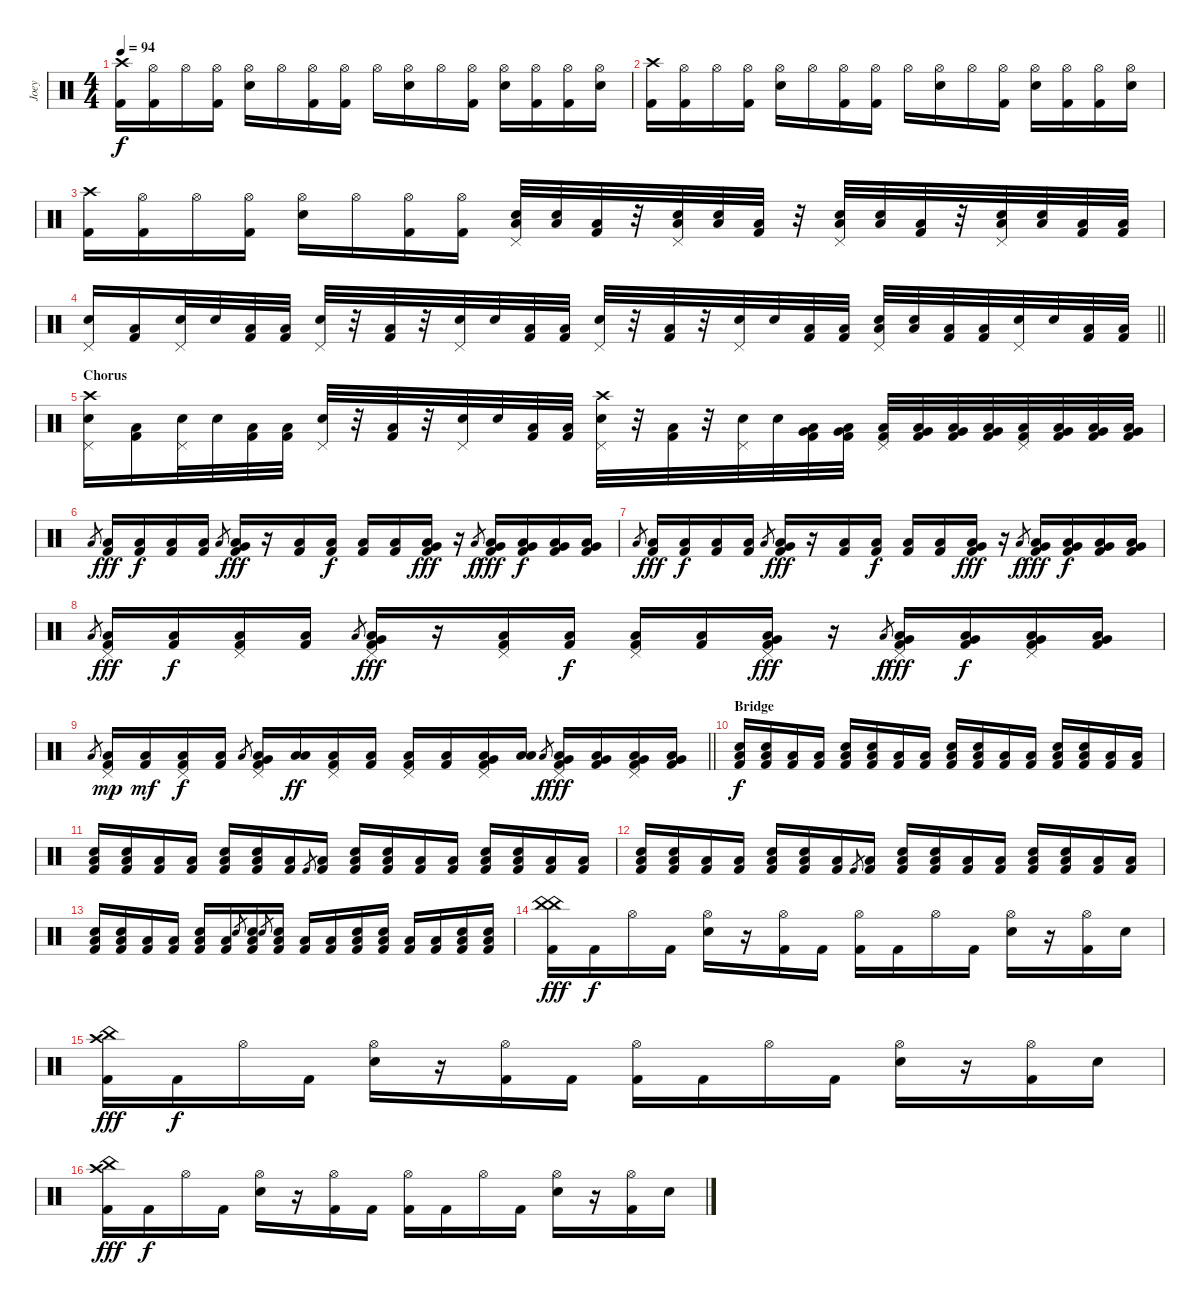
\track ("Joey" "Joey") {instrument percussion}
\staff {score}
\articulation defaults
\ts (4 4)
\tempo 94
\clef neutral
\ks c
("Crash high (hit)" "Kick (hit) 2").16{dy f} ("Hi-Hat (open)" "Kick (hit) 2").16 "Hi-Hat (open)".16 ("Hi-Hat (open)" "Kick (hit) 2").16 ("Hi-Hat (open)" "Electric Snare (hit)").16 "Hi-Hat (open)".16 ("Hi-Hat (open)" "Kick (hit) 2").16 ("Hi-Hat (open)" "Kick (hit) 2").16 "Hi-Hat (open)".16 ("Hi-Hat (open)" "Electric Snare (hit)").16 "Hi-Hat (open)".16 ("Hi-Hat (open)" "Kick (hit) 2").16 ("Hi-Hat (open)" "Electric Snare (hit)").16 ("Hi-Hat (open)" "Kick (hit) 2").16 ("Hi-Hat (open)" "Kick (hit) 2").16 ("Hi-Hat (open)" "Electric Snare (hit)").16 |
("Crash high (hit)" "Kick (hit) 2").16 ("Hi-Hat (open)" "Kick (hit) 2").16 "Hi-Hat (open)".16 ("Hi-Hat (open)" "Kick (hit) 2").16 ("Hi-Hat (open)" "Electric Snare (hit)").16 "Hi-Hat (open)".16 ("Hi-Hat (open)" "Kick (hit) 2").16 ("Hi-Hat (open)" "Kick (hit) 2").16 "Hi-Hat (open)".16 ("Hi-Hat (open)" "Electric Snare (hit)").16 "Hi-Hat (open)".16 ("Hi-Hat (open)" "Kick (hit) 2").16 ("Hi-Hat (open)" "Electric Snare (hit)").16 ("Hi-Hat (open)" "Kick (hit) 2").16 ("Hi-Hat (open)" "Kick (hit) 2").16 ("Hi-Hat (open)" "Electric Snare (hit)").16 |
("Crash high (hit)" "Kick (hit) 2").16 ("Hi-Hat (open)" "Kick (hit) 2").16 "Hi-Hat (open)".16 ("Hi-Hat (open)" "Kick (hit) 2").16 ("Hi-Hat (open)" "Electric Snare (hit)").16 "Hi-Hat (open)".16 ("Hi-Hat (open)" "Kick (hit) 2").16 ("Hi-Hat (open)" "Kick (hit) 2").16 ("Low Floor Tom (hit)" "Pedal Hi-Hat (hit)" "Electric Snare (hit)").32 ("Low Floor Tom (hit)" "Electric Snare (hit)").32 ("Low Floor Tom (hit)" "Kick (hit) 2").32 r.32 ("Low Floor Tom (hit)" "Pedal Hi-Hat (hit)" "Electric Snare (hit)").32 ("Low Floor Tom (hit)" "Electric Snare (hit)").32 ("Low Floor Tom (hit)" "Kick (hit) 2").32 r.32 ("Low Floor Tom (hit)" "Pedal Hi-Hat (hit)" "Electric Snare (hit)").32 ("Low Floor Tom (hit)" "Electric Snare (hit)").32 ("Low Floor Tom (hit)" "Kick (hit) 2").32 r.32 ("Low Floor Tom (hit)" "Pedal Hi-Hat (hit)" "Electric Snare (hit)").32 ("Low Floor Tom (hit)" "Electric Snare (hit)").32 ("Low Floor Tom (hit)" "Kick (hit) 2").32 ("Low Floor Tom (hit)" "Kick (hit) 2").32 |
\barLineRight lightlight
("Pedal Hi-Hat (hit)" "Electric Snare (hit)").16 ("Low Floor Tom (hit)" "Kick (hit) 2").16 ("Pedal Hi-Hat (hit)" "Electric Snare (hit)").32 "Electric Snare (hit)".32 ("Low Floor Tom (hit)" "Kick (hit) 2").32 ("Low Floor Tom (hit)" "Kick (hit) 2").32 ("Pedal Hi-Hat (hit)" "Electric Snare (hit)").32 r.32 ("Low Floor Tom (hit)" "Kick (hit) 2").32 r.32 ("Pedal Hi-Hat (hit)" "Electric Snare (hit)").32 "Electric Snare (hit)".32 ("Low Floor Tom (hit)" "Kick (hit) 2").32 ("Low Floor Tom (hit)" "Kick (hit) 2").32 ("Pedal Hi-Hat (hit)" "Electric Snare (hit)").32 r.32 ("Low Floor Tom (hit)" "Kick (hit) 2").32 r.32 ("Pedal Hi-Hat (hit)" "Electric Snare (hit)").32 "Electric Snare (hit)".32 ("Low Floor Tom (hit)" "Kick (hit) 2").32 ("Low Floor Tom (hit)" "Kick (hit) 2").32 ("Pedal Hi-Hat (hit)" "Low Floor Tom (hit)" "Electric Snare (hit)").32 ("Low Floor Tom (hit)" "Electric Snare (hit)").32 ("Low Floor Tom (hit)" "Kick (hit) 2").32 ("Low Floor Tom (hit)" "Kick (hit) 2").32 ("Pedal Hi-Hat (hit)" "Electric Snare (hit)").32 "Electric Snare (hit)".32 ("Low Floor Tom (hit)" "Kick (hit) 2").32 ("Low Floor Tom (hit)" "Kick (hit) 2").32 |
\section ("" "Chorus")
("Crash high (hit)" "Pedal Hi-Hat (hit)" "Electric Snare (hit)").16 ("Low Floor Tom (hit)" "Kick (hit) 2").16 ("Pedal Hi-Hat (hit)" "Electric Snare (hit)").32 "Electric Snare (hit)".32 ("Low Floor Tom (hit)" "Kick (hit) 2").32 ("Low Floor Tom (hit)" "Kick (hit) 2").32 ("Pedal Hi-Hat (hit)" "Electric Snare (hit)").32 r.32 ("Low Floor Tom (hit)" "Kick (hit) 2").32 r.32 ("Pedal Hi-Hat (hit)" "Electric Snare (hit)").32 "Electric Snare (hit)".32 ("Low Floor Tom (hit)" "Kick (hit) 2").32 ("Low Floor Tom (hit)" "Kick (hit) 2").32 ("Crash high (hit)" "Pedal Hi-Hat (hit)" "Electric Snare (hit)").32 r.32 ("Low Floor Tom (hit)" "Kick (hit) 2").32 r.32 ("Pedal Hi-Hat (hit)" "Electric Snare (hit)").32 "Electric Snare (hit)".32 ("Very Low Tom (hit)" "Low Floor Tom (hit)" "Kick (hit) 2").32 ("Very Low Tom (hit)" "Low Floor Tom (hit)" "Kick (hit) 2").32 ("Pedal Hi-Hat (hit)" "Low Floor Tom (hit)" "Kick (hit) 2").32 ("Very Low Tom (hit)" "Low Floor Tom (hit)" "Kick (hit) 2").32 ("Very Low Tom (hit)" "Low Floor Tom (hit)" "Kick (hit) 2").32 ("Very Low Tom (hit)" "Low Floor Tom (hit)" "Kick (hit) 2").32 ("Pedal Hi-Hat (hit)" "Low Floor Tom (hit)" "Kick (hit) 2").32 ("Very Low Tom (hit)" "Low Floor Tom (hit)" "Kick (hit) 2").32 ("Very Low Tom (hit)" "Low Floor Tom (hit)" "Kick (hit) 2").32 ("Very Low Tom (hit)" "Low Floor Tom (hit)" "Kick (hit) 2").32 |
"Low Floor Tom (hit)".8{gr} ("Kick (hit) 2" "Low Floor Tom (hit)").16{dy fff} ("Kick (hit) 2" "Low Floor Tom (hit)").16{dy f} ("Kick (hit) 2" "Low Floor Tom (hit)").16 ("Kick (hit) 2" "Low Floor Tom (hit)").16 "Low Floor Tom (hit)".8{gr} ("Very Low Tom (hit)" "Kick (hit) 2" "Low Floor Tom (hit)").16{dy fff} r.16 ("Kick (hit) 2" "Low Floor Tom (hit)").16 ("Kick (hit) 2" "Low Floor Tom (hit)").16{dy f} ("Kick (hit) 2" "Low Floor Tom (hit)").16 ("Kick (hit) 2" "Low Floor Tom (hit)").16 ("Very Low Tom (hit)" "Kick (hit) 2" "Low Floor Tom (hit)").16{dy fff} r.16 "Low Floor Tom (hit)".8{gr dy f} ("Very Low Tom (hit)" "Kick (hit) 2" "Low Floor Tom (hit)").16{dy fff} ("Very Low Tom (hit)" "Kick (hit) 2" "Low Floor Tom (hit)").16{dy f} ("Very Low Tom (hit)" "Kick (hit) 2" "Low Floor Tom (hit)").16 ("Very Low Tom (hit)" "Kick (hit) 2" "Low Floor Tom (hit)").16 |
"Low Floor Tom (hit)".8{gr} ("Kick (hit) 2" "Low Floor Tom (hit)").16{dy fff} ("Kick (hit) 2" "Low Floor Tom (hit)").16{dy f} ("Kick (hit) 2" "Low Floor Tom (hit)").16 ("Kick (hit) 2" "Low Floor Tom (hit)").16 "Low Floor Tom (hit)".8{gr} ("Very Low Tom (hit)" "Kick (hit) 2" "Low Floor Tom (hit)").16{dy fff} r.16 ("Kick (hit) 2" "Low Floor Tom (hit)").16 ("Kick (hit) 2" "Low Floor Tom (hit)").16{dy f} ("Kick (hit) 2" "Low Floor Tom (hit)").16 ("Kick (hit) 2" "Low Floor Tom (hit)").16 ("Very Low Tom (hit)" "Kick (hit) 2" "Low Floor Tom (hit)").16{dy fff} r.16 "Low Floor Tom (hit)".8{gr dy f} ("Very Low Tom (hit)" "Kick (hit) 2" "Low Floor Tom (hit)").16{dy fff} ("Very Low Tom (hit)" "Kick (hit) 2" "Low Floor Tom (hit)").16{dy f} ("Very Low Tom (hit)" "Kick (hit) 2" "Low Floor Tom (hit)").16 ("Very Low Tom (hit)" "Kick (hit) 2" "Low Floor Tom (hit)").16 |
"Low Floor Tom (hit)".8{gr} ("Pedal Hi-Hat (hit)" "Kick (hit) 2" "Low Floor Tom (hit)").16{dy fff} ("Kick (hit) 2" "Low Floor Tom (hit)").16{dy f} ("Pedal Hi-Hat (hit)" "Kick (hit) 2" "Low Floor Tom (hit)").16 ("Kick (hit) 2" "Low Floor Tom (hit)").16 "Low Floor Tom (hit)".8{gr} ("Pedal Hi-Hat (hit)" "Very Low Tom (hit)" "Kick (hit) 2" "Low Floor Tom (hit)").16{dy fff} r.16 ("Pedal Hi-Hat (hit)" "Kick (hit) 2" "Low Floor Tom (hit)").16 ("Kick (hit) 2" "Low Floor Tom (hit)").16{dy f} ("Pedal Hi-Hat (hit)" "Kick (hit) 2" "Low Floor Tom (hit)").16 ("Kick (hit) 2" "Low Floor Tom (hit)").16 ("Pedal Hi-Hat (hit)" "Very Low Tom (hit)" "Kick (hit) 2" "Low Floor Tom (hit)").16{dy fff} r.16 "Low Floor Tom (hit)".8{gr dy f} ("Pedal Hi-Hat (hit)" "Very Low Tom (hit)" "Kick (hit) 2" "Low Floor Tom (hit)").16{dy fff} ("Very Low Tom (hit)" "Kick (hit) 2" "Low Floor Tom (hit)").16{dy f} ("Pedal Hi-Hat (hit)" "Very Low Tom (hit)" "Kick (hit) 2" "Low Floor Tom (hit)").16 ("Very Low Tom (hit)" "Kick (hit) 2" "Low Floor Tom (hit)").16 |
\barLineRight lightlight "Low Floor Tom (hit)".8{gr}
("Pedal Hi-Hat (hit)" "Kick (hit) 2" "Low Floor Tom (hit)").16{dy mp} ("Kick (hit) 2" "Low Floor Tom (hit)").16{dy mf} ("Pedal Hi-Hat (hit)" "Kick (hit) 2" "Low Floor Tom (hit)").16{dy f} ("Kick (hit) 2" "Low Floor Tom (hit)").16 "Low Floor Tom (hit)".8{gr} ("Pedal Hi-Hat (hit)" "Very Low Tom (hit)" "Kick (hit) 2" "Low Floor Tom (hit)").16 ("Low Floor Tom (hit)" "Low Floor Tom (hit)").16{dy ff} ("Pedal Hi-Hat (hit)" "Kick (hit) 2" "Low Floor Tom (hit)").16 ("Kick (hit) 2" "Low Floor Tom (hit)").16 ("Pedal Hi-Hat (hit)" "Kick (hit) 2" "Low Floor Tom (hit)").16 ("Kick (hit) 2" "Low Floor Tom (hit)").16 ("Pedal Hi-Hat (hit)" "Very Low Tom (hit)" "Kick (hit) 2" "Low Floor Tom (hit)").16 ("Low Floor Tom (hit)" "Low Floor Tom (hit)").16 "Low Floor Tom (hit)".8{gr dy f} ("Pedal Hi-Hat (hit)" "Very Low Tom (hit)" "Kick (hit) 2" "Low Floor Tom (hit)").16{dy fff} ("Very Low Tom (hit)" "Kick (hit) 2" "Low Floor Tom (hit)").16 ("Pedal Hi-Hat (hit)" "Very Low Tom (hit)" "Kick (hit) 2" "Low Floor Tom (hit)").16 ("Very Low Tom (hit)" "Kick (hit) 2" "Low Floor Tom (hit)").16 |
\section ("" "Bridge")
("Low Floor Tom (hit)" "Electric Snare (hit)" "Kick (hit) 2").16{dy f} ("Low Floor Tom (hit)" "Electric Snare (hit)" "Kick (hit) 2").16 ("Low Floor Tom (hit)" "Kick (hit) 2").16 ("Low Floor Tom (hit)" "Kick (hit) 2").16 ("Low Floor Tom (hit)" "Electric Snare (hit)" "Kick (hit) 2").16 ("Low Floor Tom (hit)" "Electric Snare (hit)" "Kick (hit) 2").16 ("Low Floor Tom (hit)" "Kick (hit) 2").16 ("Low Floor Tom (hit)" "Kick (hit) 2").16 ("Low Floor Tom (hit)" "Electric Snare (hit)" "Kick (hit) 2").16 ("Low Floor Tom (hit)" "Electric Snare (hit)" "Kick (hit) 2").16 ("Low Floor Tom (hit)" "Kick (hit) 2").16 ("Low Floor Tom (hit)" "Kick (hit) 2").16 ("Low Floor Tom (hit)" "Electric Snare (hit)" "Kick (hit) 2").16 ("Low Floor Tom (hit)" "Electric Snare (hit)" "Kick (hit) 2").16 ("Low Floor Tom (hit)" "Kick (hit) 2").16 ("Low Floor Tom (hit)" "Kick (hit) 2").16 |
("Low Floor Tom (hit)" "Electric Snare (hit)" "Kick (hit) 2").16 ("Low Floor Tom (hit)" "Electric Snare (hit)" "Kick (hit) 2").16 ("Low Floor Tom (hit)" "Kick (hit) 2").16 ("Low Floor Tom (hit)" "Kick (hit) 2").16 ("Low Floor Tom (hit)" "Electric Snare (hit)" "Kick (hit) 2").16 ("Low Floor Tom (hit)" "Electric Snare (hit)" "Kick (hit) 2").16 ("Low Floor Tom (hit)" "Kick (hit) 2").16 "Kick (hit) 2".8{gr} ("Low Floor Tom (hit)" "Kick (hit) 2").16 ("Low Floor Tom (hit)" "Electric Snare (hit)" "Kick (hit) 2").16 ("Low Floor Tom (hit)" "Electric Snare (hit)" "Kick (hit) 2").16 ("Low Floor Tom (hit)" "Kick (hit) 2").16 ("Low Floor Tom (hit)" "Kick (hit) 2").16 ("Low Floor Tom (hit)" "Electric Snare (hit)" "Kick (hit) 2").16 ("Low Floor Tom (hit)" "Electric Snare (hit)" "Kick (hit) 2").16 ("Low Floor Tom (hit)" "Kick (hit) 2").16 ("Low Floor Tom (hit)" "Kick (hit) 2").16 |
("Low Floor Tom (hit)" "Electric Snare (hit)" "Kick (hit) 2").16 ("Low Floor Tom (hit)" "Electric Snare (hit)" "Kick (hit) 2").16 ("Low Floor Tom (hit)" "Kick (hit) 2").16 ("Low Floor Tom (hit)" "Kick (hit) 2").16 ("Low Floor Tom (hit)" "Electric Snare (hit)" "Kick (hit) 2").16 ("Low Floor Tom (hit)" "Electric Snare (hit)" "Kick (hit) 2").16 ("Low Floor Tom (hit)" "Kick (hit) 2").16 "Kick (hit) 2".8{gr} ("Low Floor Tom (hit)" "Kick (hit) 2").16 ("Low Floor Tom (hit)" "Electric Snare (hit)" "Kick (hit) 2").16 ("Low Floor Tom (hit)" "Electric Snare (hit)" "Kick (hit) 2").16 ("Low Floor Tom (hit)" "Kick (hit) 2").16 ("Low Floor Tom (hit)" "Kick (hit) 2").16 ("Low Floor Tom (hit)" "Electric Snare (hit)" "Kick (hit) 2").16 ("Low Floor Tom (hit)" "Electric Snare (hit)" "Kick (hit) 2").16 ("Low Floor Tom (hit)" "Kick (hit) 2").16 ("Low Floor Tom (hit)" "Kick (hit) 2").16 |
("Low Floor Tom (hit)" "Electric Snare (hit)" "Kick (hit) 2").16 ("Low Floor Tom (hit)" "Electric Snare (hit)" "Kick (hit) 2").16 ("Low Floor Tom (hit)" "Kick (hit) 2").16 ("Low Floor Tom (hit)" "Kick (hit) 2").16 ("Low Floor Tom (hit)" "Electric Snare (hit)" "Kick (hit) 2").16 ("Low Floor Tom (hit)" "Kick (hit) 2").16 "Electric Snare (hit)".8{gr} ("Low Floor Tom (hit)" "Electric Snare (hit)" "Kick (hit) 2").16 "Electric Snare (hit)".8{gr} ("Low Floor Tom (hit)" "Electric Snare (hit)" "Kick (hit) 2").16 ("Low Floor Tom (hit)" "Kick (hit) 2").16 ("Low Floor Tom (hit)" "Kick (hit) 2").16 ("Low Floor Tom (hit)" "Electric Snare (hit)" "Kick (hit) 2").16 ("Low Floor Tom (hit)" "Electric Snare (hit)" "Kick (hit) 2").16 ("Low Floor Tom (hit)" "Kick (hit) 2").16 ("Low Floor Tom (hit)" "Kick (hit) 2").16 ("Low Floor Tom (hit)" "Electric Snare (hit)" "Kick (hit) 2").16 ("Low Floor Tom (hit)" "Electric Snare (hit)" "Kick (hit) 2").16 |
("China (hit)" "China (hit)" "Kick (hit) 2").16{dy fff} "Kick (hit) 2".16{dy f} "Hi-Hat (open)".16 "Kick (hit) 2".16 ("Hi-Hat (open)" "Electric Snare (hit)").16 r.16 ("Hi-Hat (open)" "Kick (hit) 2").16 "Kick (hit) 2".16 ("Hi-Hat (open)" "Kick (hit) 2").16 "Kick (hit) 2".16 "Hi-Hat (open)".16 "Kick (hit) 2".16 ("Hi-Hat (open)" "Electric Snare (hit)").16 r.16 ("Hi-Hat (open)" "Kick (hit) 2").16 "Electric Snare (hit)".16 |
("Crash high (hit)" "China (hit)" "Kick (hit) 2").16{dy fff} "Kick (hit) 2".16{dy f} "Hi-Hat (open)".16 "Kick (hit) 2".16 ("Hi-Hat (open)" "Electric Snare (hit)").16 r.16 ("Hi-Hat (open)" "Kick (hit) 2").16 "Kick (hit) 2".16 ("Hi-Hat (open)" "Kick (hit) 2").16 "Kick (hit) 2".16 "Hi-Hat (open)".16 "Kick (hit) 2".16 ("Hi-Hat (open)" "Electric Snare (hit)").16 r.16 ("Hi-Hat (open)" "Kick (hit) 2").16 "Electric Snare (hit)".16 |
("Crash high (hit)" "China (hit)" "Kick (hit) 2").16{dy fff} "Kick (hit) 2".16{dy f} "Hi-Hat (open)".16 "Kick (hit) 2".16 ("Hi-Hat (open)" "Electric Snare (hit)").16 r.16 ("Hi-Hat (open)" "Kick (hit) 2").16 "Kick (hit) 2".16 ("Hi-Hat (open)" "Kick (hit) 2").16 "Kick (hit) 2".16 "Hi-Hat (open)".16 "Kick (hit) 2".16 ("Hi-Hat (open)" "Electric Snare (hit)").16 r.16 ("Hi-Hat (open)" "Kick (hit) 2").16 "Electric Snare (hit)".16
